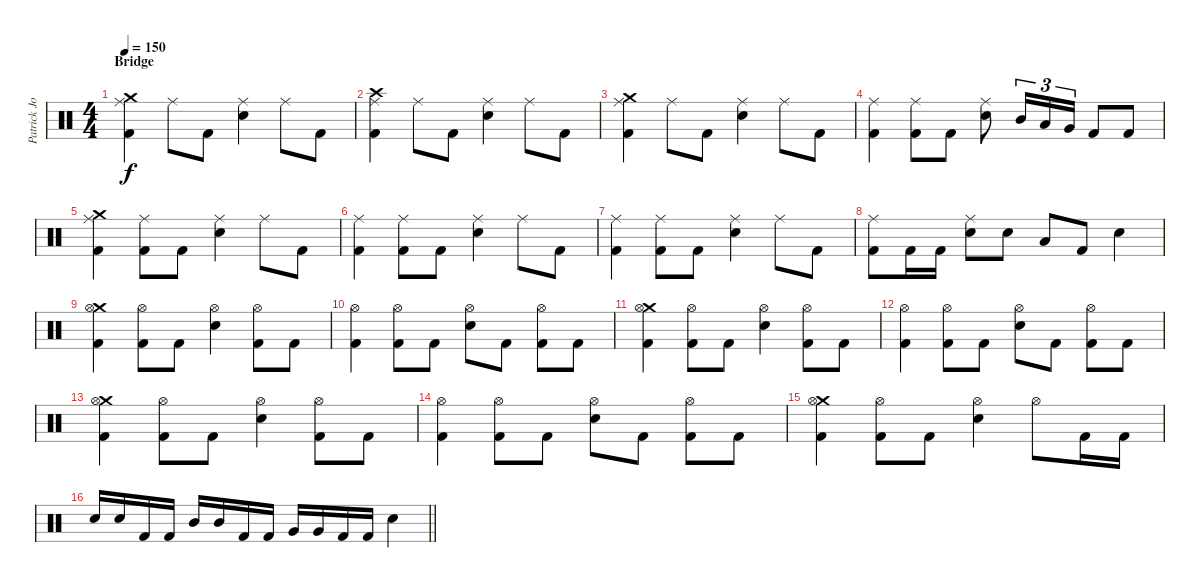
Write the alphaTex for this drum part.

\track ("Patrick Johansson" "Patrick Jo") {instrument percussion}
\staff {score}
\articulation defaults
\ts (4 4)
\section ("" "Bridge")
\tempo 150
\clef neutral
\ks c
("Crash medium (hit)" "Ride (middle)" "Kick (hit) 2").4{dy f} "Ride (middle)".8 "Kick (hit) 2".8 ("Ride (middle)" "Snare (hit) 2").4 "Ride (middle)".8 "Kick (hit) 2".8 |
("Crash high (hit)" "Ride (middle)" "Kick (hit) 2").4 "Ride (middle)".8 "Kick (hit) 2".8 ("Ride (middle)" "Snare (hit) 2").4 "Ride (middle)".8 "Kick (hit) 2".8 |
("Crash medium (hit)" "Ride (middle)" "Kick (hit) 2").4 "Ride (middle)".8 "Kick (hit) 2".8 ("Ride (middle)" "Snare (hit) 2").4 "Ride (middle)".8 "Kick (hit) 2".8 |
("Ride (middle)" "Kick (hit) 2").4 ("Ride (middle)" "Kick (hit) 2").8 "Kick (hit) 2".8 ("Ride (middle)" "Snare (hit) 2").8 "Mid Tom (hit)".16{tu (3 2)} "Low Tom (hit)".16{tu (3 2)} "Very Low Tom (hit)".16{tu (3 2)} "Kick (hit) 2".8 "Kick (hit) 2".8 |
("Crash medium (hit)" "Ride (middle)" "Kick (hit) 2").4 ("Ride (middle)" "Kick (hit) 2").8 "Kick (hit) 2".8 ("Ride (middle)" "Snare (hit) 2").4 "Ride (middle)".8 "Kick (hit) 2".8 |
("Ride (middle)" "Kick (hit) 2").4 ("Ride (middle)" "Kick (hit) 2").8 "Kick (hit) 2".8 ("Ride (middle)" "Snare (hit) 2").4 "Ride (middle)".8 "Kick (hit) 2".8 |
("Ride (middle)" "Kick (hit) 2").4 ("Ride (middle)" "Kick (hit) 2").8 "Kick (hit) 2".8 ("Ride (middle)" "Snare (hit) 2").4 "Ride (middle)".8 "Kick (hit) 2".8 |
("Ride (middle)" "Kick (hit) 2").8 "Kick (hit) 2".16 "Kick (hit) 2".16 ("Ride (middle)" "Snare (hit) 2").8 "Snare (hit) 2".8 "Low Tom (hit)".8 "Kick (hit) 2".8 "Snare (hit) 2".4 |
("Crash medium (hit)" "Hi-Hat (open)" "Kick (hit) 2").4 ("Hi-Hat (open)" "Kick (hit) 2").8 "Kick (hit) 2".8 ("Hi-Hat (open)" "Snare (hit) 2").4 ("Hi-Hat (open)" "Kick (hit) 2").8 "Kick (hit) 2".8 |
("Hi-Hat (open)" "Kick (hit) 2").4 ("Hi-Hat (open)" "Kick (hit) 2").8 "Kick (hit) 2".8 ("Hi-Hat (open)" "Snare (hit) 2").8 "Kick (hit) 2".8 ("Hi-Hat (open)" "Kick (hit) 2").8 "Kick (hit) 2".8 |
("Crash medium (hit)" "Hi-Hat (open)" "Kick (hit) 2").4 ("Hi-Hat (open)" "Kick (hit) 2").8 "Kick (hit) 2".8 ("Hi-Hat (open)" "Snare (hit) 2").4 ("Hi-Hat (open)" "Kick (hit) 2").8 "Kick (hit) 2".8 |
("Hi-Hat (open)" "Kick (hit) 2").4 ("Hi-Hat (open)" "Kick (hit) 2").8 "Kick (hit) 2".8 ("Hi-Hat (open)" "Snare (hit) 2").8 "Kick (hit) 2".8 ("Hi-Hat (open)" "Kick (hit) 2").8 "Kick (hit) 2".8 |
("Crash medium (hit)" "Hi-Hat (open)" "Kick (hit) 2").4 ("Hi-Hat (open)" "Kick (hit) 2").8 "Kick (hit) 2".8 ("Hi-Hat (open)" "Snare (hit) 2").4 ("Hi-Hat (open)" "Kick (hit) 2").8 "Kick (hit) 2".8 |
("Hi-Hat (open)" "Kick (hit) 2").4 ("Hi-Hat (open)" "Kick (hit) 2").8 "Kick (hit) 2".8 ("Hi-Hat (open)" "Snare (hit) 2").8 "Kick (hit) 2".8 ("Hi-Hat (open)" "Kick (hit) 2").8 "Kick (hit) 2".8 |
("Crash medium (hit)" "Hi-Hat (open)" "Kick (hit) 2").4 ("Hi-Hat (open)" "Kick (hit) 2").8 "Kick (hit) 2".8 ("Hi-Hat (open)" "Snare (hit) 2").4 "Hi-Hat (open)".8 "Kick (hit) 2".16 "Kick (hit) 2".16 |
\barLineRight lightlight "Snare (hit) 2".16 "Snare (hit) 2".16 "Kick (hit) 2".16 "Kick (hit) 2".16 "Mid Tom (hit)".16 "Mid Tom (hit)".16 "Kick (hit) 2".16 "Kick (hit) 2".16 "Very Low Tom (hit)".16 "Very Low Tom (hit)".16 "Kick (hit) 2".16 "Kick (hit) 2".16 "Snare (hit) 2".4
